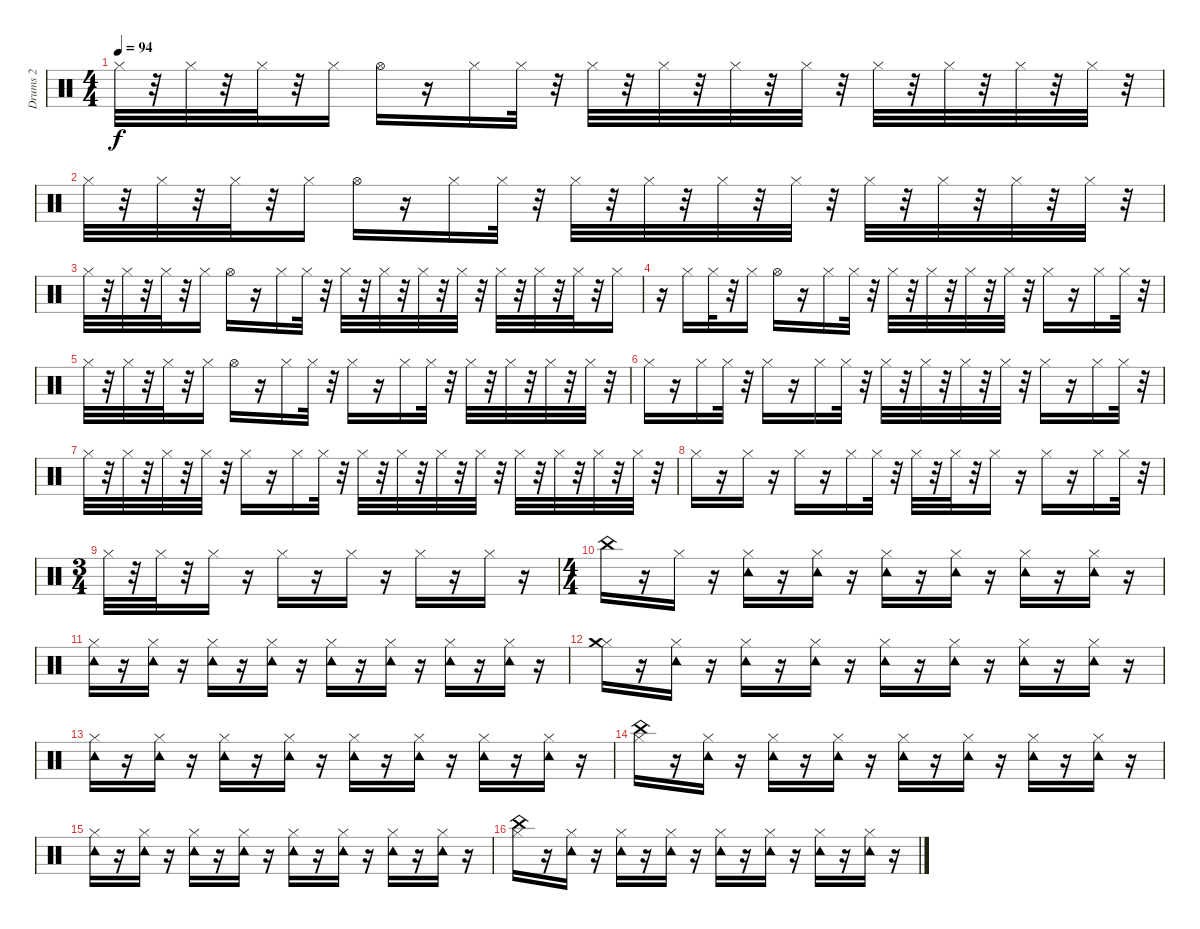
\track ("Drums 2" "Drums 2") {instrument percussion}
\staff {score}
\articulation defaults
\ts (4 4)
\tempo 94
\clef neutral
\ks c "Hi-Hat (closed)".32{dy f}
r.32 "Hi-Hat (closed)".32 r.32 "Hi-Hat (closed)".32 r.32 "Hi-Hat (closed)".16 "Hi-Hat (open)".16 r.16 "Hi-Hat (closed)".16 "Hi-Hat (closed)".32 r.32 "Hi-Hat (closed)".32 r.32 "Hi-Hat (closed)".32 r.32 "Hi-Hat (closed)".32 r.32 "Hi-Hat (closed)".32 r.32 "Hi-Hat (closed)".32 r.32 "Hi-Hat (closed)".32 r.32 "Hi-Hat (closed)".32 r.32 "Hi-Hat (closed)".32 r.32 |
"Hi-Hat (closed)".32 r.32 "Hi-Hat (closed)".32 r.32 "Hi-Hat (closed)".32 r.32 "Hi-Hat (closed)".16 "Hi-Hat (open)".16 r.16 "Hi-Hat (closed)".16 "Hi-Hat (closed)".32 r.32 "Hi-Hat (closed)".32 r.32 "Hi-Hat (closed)".32 r.32 "Hi-Hat (closed)".32 r.32 "Hi-Hat (closed)".32 r.32 "Hi-Hat (closed)".32 r.32 "Hi-Hat (closed)".32 r.32 "Hi-Hat (closed)".32 r.32 "Hi-Hat (closed)".32 r.32 |
"Hi-Hat (closed)".32 r.32 "Hi-Hat (closed)".32 r.32 "Hi-Hat (closed)".32 r.32 "Hi-Hat (closed)".16 "Hi-Hat (open)".16 r.16 "Hi-Hat (closed)".16 "Hi-Hat (closed)".32 r.32 "Hi-Hat (closed)".32 r.32 "Hi-Hat (closed)".32 r.32 "Hi-Hat (closed)".32 r.32 "Hi-Hat (closed)".32 r.32 "Hi-Hat (closed)".32 r.32 "Hi-Hat (closed)".32 r.32 "Hi-Hat (closed)".32 r.32 "Hi-Hat (closed)".16 |
r.16 "Hi-Hat (closed)".16 "Hi-Hat (closed)".32 r.32 "Hi-Hat (closed)".16 "Hi-Hat (open)".16 r.16 "Hi-Hat (closed)".16 "Hi-Hat (closed)".32 r.32 "Hi-Hat (closed)".32 r.32 "Hi-Hat (closed)".32 r.32 "Hi-Hat (closed)".32 r.32 "Hi-Hat (closed)".32 r.32 "Hi-Hat (closed)".16 r.16 "Hi-Hat (closed)".16 "Hi-Hat (closed)".32 r.32 |
"Hi-Hat (closed)".32 r.32 "Hi-Hat (closed)".32 r.32 "Hi-Hat (closed)".32 r.32 "Hi-Hat (closed)".16 "Hi-Hat (open)".16 r.16 "Hi-Hat (closed)".16 "Hi-Hat (closed)".32 r.32 "Hi-Hat (closed)".16 r.16 "Hi-Hat (closed)".16 "Hi-Hat (closed)".32 r.32 "Hi-Hat (closed)".32 r.32 "Hi-Hat (closed)".32 r.32 "Hi-Hat (closed)".32 r.32 "Hi-Hat (closed)".32 r.32 |
"Hi-Hat (closed)".16 r.16 "Hi-Hat (closed)".16 "Hi-Hat (closed)".32 r.32 "Hi-Hat (closed)".16 r.16 "Hi-Hat (closed)".16 "Hi-Hat (closed)".32 r.32 "Hi-Hat (closed)".32 r.32 "Hi-Hat (closed)".32 r.32 "Hi-Hat (closed)".32 r.32 "Hi-Hat (closed)".32 r.32 "Hi-Hat (closed)".16 r.16 "Hi-Hat (closed)".16 "Hi-Hat (closed)".32 r.32 |
"Hi-Hat (closed)".32 r.32 "Hi-Hat (closed)".32 r.32 "Hi-Hat (closed)".32 r.32 "Hi-Hat (closed)".32 r.32 "Hi-Hat (closed)".16 r.16 "Hi-Hat (closed)".16 "Hi-Hat (closed)".32 r.32 "Hi-Hat (closed)".32 r.32 "Hi-Hat (closed)".32 r.32 "Hi-Hat (closed)".32 r.32 "Hi-Hat (closed)".32 r.32 "Hi-Hat (closed)".32 r.32 "Hi-Hat (closed)".32 r.32 "Hi-Hat (closed)".32 r.32 "Hi-Hat (closed)".32 r.32 |
"Hi-Hat (closed)".16 r.16 "Hi-Hat (closed)".16 r.16 "Hi-Hat (closed)".16 r.16 "Hi-Hat (closed)".16 "Hi-Hat (closed)".32 r.32 "Hi-Hat (closed)".32 r.32 "Hi-Hat (closed)".32 r.32 "Hi-Hat (closed)".16 r.16 "Hi-Hat (closed)".16 r.16 "Hi-Hat (closed)".16 "Hi-Hat (closed)".32 r.32 |
\ts (3 4)
"Hi-Hat (closed)".32 r.32 "Hi-Hat (closed)".32 r.32 "Hi-Hat (closed)".16 r.16 "Hi-Hat (closed)".16 r.16 "Hi-Hat (closed)".16 r.16 "Hi-Hat (closed)".16 r.16 "Hi-Hat (closed)".16 r.16 |
\ts (4 4)
"China (hit)".16 r.16 "Hi-Hat (closed)".16 r.16 ("Tambourine (hit)" "Hi-Hat (closed)").16 r.16 ("Hi-Hat (closed)" "Tambourine (hit)").16 r.16 ("Tambourine (hit)" "Hi-Hat (closed)").16 r.16 ("Hi-Hat (closed)" "Tambourine (hit)").16 r.16 ("Hi-Hat (closed)" "Tambourine (hit)").16 r.16 ("Hi-Hat (closed)" "Tambourine (hit)").16 r.16 |
("Hi-Hat (closed)" "Tambourine (hit)").16 r.16 ("Hi-Hat (closed)" "Tambourine (hit)").16 r.16 ("Hi-Hat (closed)" "Tambourine (hit)").16 r.16 ("Hi-Hat (closed)" "Tambourine (hit)").16 r.16 ("Hi-Hat (closed)" "Tambourine (hit)").16 r.16 ("Hi-Hat (closed)" "Tambourine (hit)").16 r.16 ("Hi-Hat (closed)" "Tambourine (hit)").16 r.16 ("Hi-Hat (closed)" "Tambourine (hit)").16 r.16 |
("Hi-Hat (closed)" "Crash medium (hit)").16 r.16 ("Hi-Hat (closed)" "Tambourine (hit)").16 r.16 ("Hi-Hat (closed)" "Tambourine (hit)").16 r.16 ("Hi-Hat (closed)" "Tambourine (hit)").16 r.16 ("Hi-Hat (closed)" "Tambourine (hit)").16 r.16 ("Hi-Hat (closed)" "Tambourine (hit)").16 r.16 ("Tambourine (hit)" "Hi-Hat (closed)").16 r.16 ("Hi-Hat (closed)" "Tambourine (hit)").16 r.16 |
("Hi-Hat (closed)" "Tambourine (hit)").16 r.16 ("Hi-Hat (closed)" "Tambourine (hit)").16 r.16 ("Hi-Hat (closed)" "Tambourine (hit)").16 r.16 ("Hi-Hat (closed)" "Tambourine (hit)").16 r.16 ("Hi-Hat (closed)" "Tambourine (hit)").16 r.16 ("Hi-Hat (closed)" "Tambourine (hit)").16 r.16 ("Hi-Hat (closed)" "Tambourine (hit)").16 r.16 ("Hi-Hat (closed)" "Tambourine (hit)").16 r.16 |
("Hi-Hat (closed)" "China (hit)").16 r.16 ("Hi-Hat (closed)" "Tambourine (hit)").16 r.16 ("Hi-Hat (closed)" "Tambourine (hit)").16 r.16 ("Hi-Hat (closed)" "Tambourine (hit)").16 r.16 ("Hi-Hat (closed)" "Tambourine (hit)").16 r.16 ("Hi-Hat (closed)" "Tambourine (hit)").16 r.16 ("Hi-Hat (closed)" "Tambourine (hit)").16 r.16 ("Hi-Hat (closed)" "Tambourine (hit)").16 r.16 |
("Hi-Hat (closed)" "Tambourine (hit)").16 r.16 ("Hi-Hat (closed)" "Tambourine (hit)").16 r.16 ("Hi-Hat (closed)" "Tambourine (hit)").16 r.16 ("Hi-Hat (closed)" "Tambourine (hit)").16 r.16 ("Hi-Hat (closed)" "Tambourine (hit)").16 r.16 ("Hi-Hat (closed)" "Tambourine (hit)").16 r.16 ("Hi-Hat (closed)" "Tambourine (hit)").16 r.16 ("Hi-Hat (closed)" "Tambourine (hit)").16 r.16 |
("Hi-Hat (closed)" "China (hit)").16 r.16 ("Tambourine (hit)" "Hi-Hat (closed)").16 r.16 ("Hi-Hat (closed)" "Tambourine (hit)").16 r.16 ("Hi-Hat (closed)" "Tambourine (hit)").16 r.16 ("Hi-Hat (closed)" "Tambourine (hit)").16 r.16 ("Hi-Hat (closed)" "Tambourine (hit)").16 r.16 ("Hi-Hat (closed)" "Tambourine (hit)").16 r.16 ("Hi-Hat (closed)" "Tambourine (hit)").16 r.16
